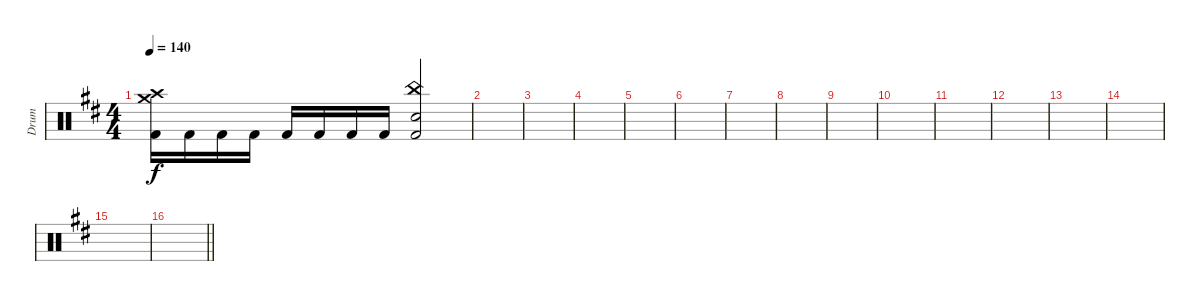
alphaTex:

\track ("Drum" "Drum") {instrument percussion}
\staff {score}
\articulation defaults
\ts (4 4)
\tempo 140
\clef neutral
\ks bminor
("Crash medium (hit)" "Crash high (hit)" "Kick (hit) 2").16{dy f} "Kick (hit) 2".16 "Kick (hit) 2".16 "Kick (hit) 2".16 "Kick (hit) 2".16 "Kick (hit) 2".16 "Kick (hit) 2".16 "Kick (hit) 2".16 ("China (hit)" "Snare (hit) 2" "Kick (hit) 2").2 |
|
|
|
|
|
|
|
|
|
|
|
|
|
|
\barLineRight lightlight
